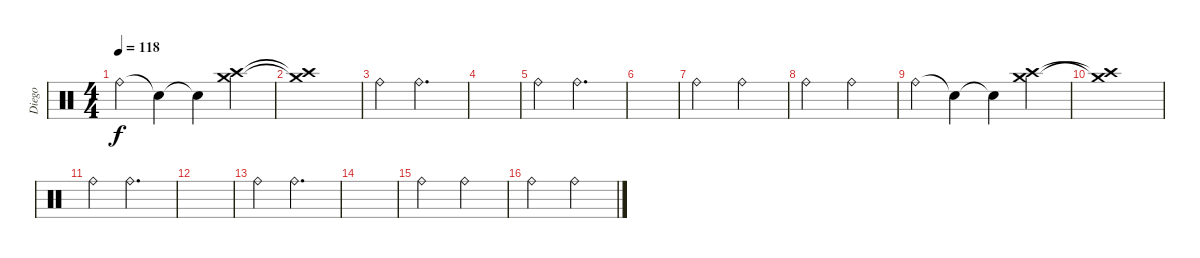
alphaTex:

\track ("Diego" "Diego") {instrument percussion}
\staff {score}
\articulation defaults
\ts (4 4)
\tempo 118
\clef neutral
\ks c "Ride (bell)".4{dy f} "Snare (hit)"{t}.4 "Snare (hit)"{t}.4
("Crash high (hit)" "Crash medium (hit)").4 |
("Crash high (hit)"{t} "Crash medium (hit)"{t}).1 |
"Ride (bell)".4 "Ride (bell)".2{d} |
|
"Ride (bell)".4 "Ride (bell)".2{d} |
|
"Ride (bell)".2 "Ride (bell)".2 |
"Ride (bell)".2 "Ride (bell)".2 |
"Ride (bell)".4 "Snare (hit)"{t}.4 "Snare (hit)"{t}.4 ("Crash medium (hit)" "Crash high (hit)").4 |
("Crash high (hit)"{t} "Crash medium (hit)"{t}).1 |
"Ride (bell)".4 "Ride (bell)".2{d} |
|
"Ride (bell)".4 "Ride (bell)".2{d} |
|
"Ride (bell)".2 "Ride (bell)".2 |
"Ride (bell)".2 "Ride (bell)".2
